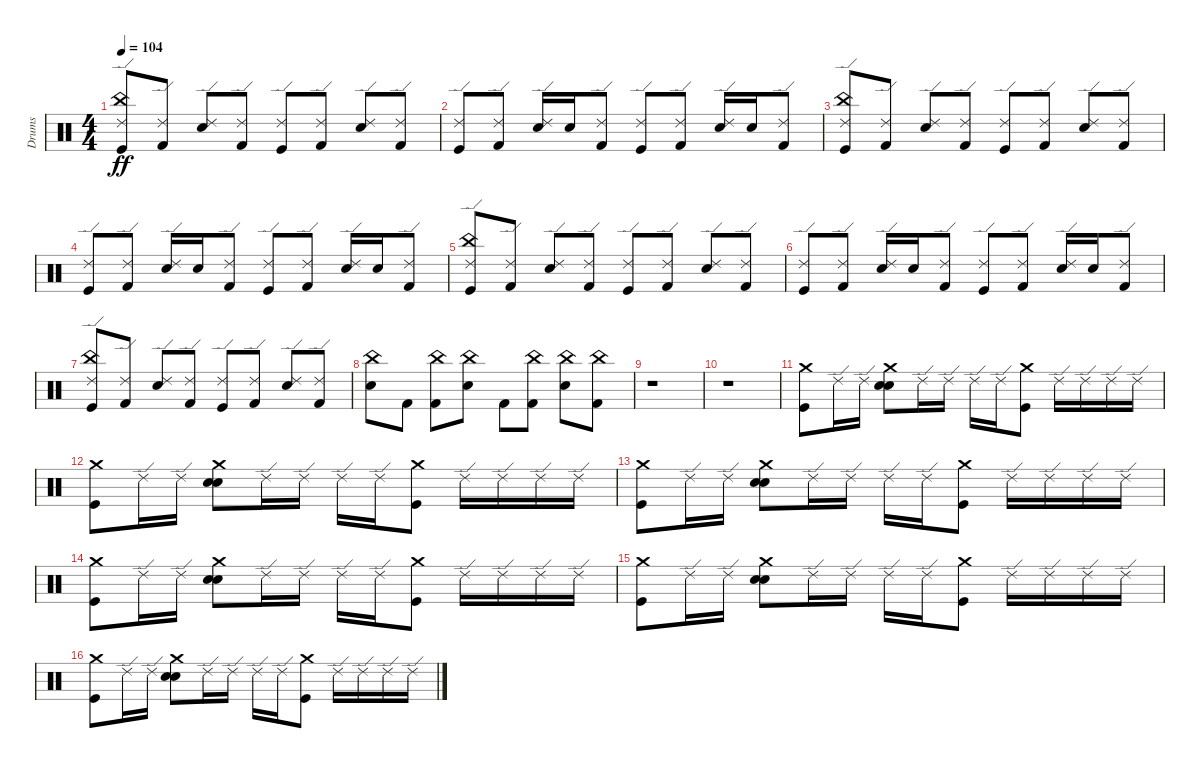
\track ("Drums" "Drums") {instrument percussion}
\staff {score}
\articulation defaults
\ts (4 4)
\tempo 104
\clef neutral
\ks c
("Kick (hit)" "China (hit)" "Ride (edge) 2").8{dy ff volume 16} ("Kick (hit) 2" "Ride (edge) 2").8 ("Snare (hit) 2" "Ride (edge) 2").8{volume 16} ("Kick (hit) 2" "Ride (edge) 2").8 ("Kick (hit)" "Ride (edge) 2").8{volume 16} ("Kick (hit) 2" "Ride (edge) 2").8 ("Snare (hit) 2" "Ride (edge) 2").8{volume 16} ("Kick (hit) 2" "Ride (edge) 2").8 |
("Kick (hit)" "Ride (edge) 2").8 ("Kick (hit) 2" "Ride (edge) 2").8 ("Snare (hit) 2" "Ride (edge) 2").16 "Snare (hit) 2".16 ("Kick (hit) 2" "Ride (edge) 2").8 ("Kick (hit)" "Ride (edge) 2").8 ("Kick (hit) 2" "Ride (edge) 2").8 ("Snare (hit) 2" "Ride (edge) 2").16 "Snare (hit) 2".16 ("Kick (hit) 2" "Ride (edge) 2").8 |
("Kick (hit)" "China (hit)" "Ride (edge) 2").8 ("Kick (hit) 2" "Ride (edge) 2").8 ("Snare (hit) 2" "Ride (edge) 2").8 ("Kick (hit) 2" "Ride (edge) 2").8 ("Kick (hit)" "Ride (edge) 2").8 ("Kick (hit) 2" "Ride (edge) 2").8 ("Snare (hit) 2" "Ride (edge) 2").8 ("Kick (hit) 2" "Ride (edge) 2").8 |
("Kick (hit)" "Ride (edge) 2").8 ("Kick (hit) 2" "Ride (edge) 2").8 ("Snare (hit) 2" "Ride (edge) 2").16 "Snare (hit) 2".16 ("Kick (hit) 2" "Ride (edge) 2").8 ("Kick (hit)" "Ride (edge) 2").8 ("Kick (hit) 2" "Ride (edge) 2").8 ("Snare (hit) 2" "Ride (edge) 2").16 "Snare (hit) 2".16 ("Kick (hit) 2" "Ride (edge) 2").8 |
("Kick (hit)" "China (hit)" "Ride (edge) 2").8 ("Kick (hit) 2" "Ride (edge) 2").8 ("Snare (hit) 2" "Ride (edge) 2").8 ("Kick (hit) 2" "Ride (edge) 2").8 ("Kick (hit)" "Ride (edge) 2").8 ("Kick (hit) 2" "Ride (edge) 2").8 ("Snare (hit) 2" "Ride (edge) 2").8 ("Kick (hit) 2" "Ride (edge) 2").8 |
("Kick (hit)" "Ride (edge) 2").8 ("Kick (hit) 2" "Ride (edge) 2").8 ("Snare (hit) 2" "Ride (edge) 2").16 "Snare (hit) 2".16 ("Kick (hit) 2" "Ride (edge) 2").8 ("Kick (hit)" "Ride (edge) 2").8 ("Kick (hit) 2" "Ride (edge) 2").8 ("Snare (hit) 2" "Ride (edge) 2").16 "Snare (hit) 2".16 ("Kick (hit) 2" "Ride (edge) 2").8 |
("Kick (hit)" "China (hit)" "Ride (edge) 2").8 ("Kick (hit) 2" "Ride (edge) 2").8 ("Snare (hit) 2" "Ride (edge) 2").8 ("Kick (hit) 2" "Ride (edge) 2").8 ("Kick (hit)" "Ride (edge) 2").8 ("Kick (hit) 2" "Ride (edge) 2").8 ("Snare (hit) 2" "Ride (edge) 2").8 ("Kick (hit) 2" "Ride (edge) 2").8 |
("Snare (hit) 2" "China (hit)").8 "Kick (hit) 2".8 ("Kick (hit) 2" "China (hit)").8 ("Snare (hit) 2" "China (hit)").8 "Kick (hit) 2".8 ("Kick (hit) 2" "China (hit)").8 ("Snare (hit) 2" "China (hit)").8 ("Kick (hit) 2" "China (hit)").8 |
r.1 |
r.1 |
("Kick (hit)" "Crash medium (hit)").8 "Ride (edge) 2".16 "Ride (edge) 2".16 ("Snare (hit) 2" "Electric Snare (hit)" "Crash medium (hit)").8 "Ride (edge) 2".16 "Ride (edge) 2".16 "Ride (edge) 2".16 "Ride (edge) 2".16 ("Kick (hit)" "Crash medium (hit)").8 "Ride (edge) 2".16 "Ride (edge) 2".16 "Ride (edge) 2".16 "Ride (edge) 2".16 |
("Kick (hit)" "Crash medium (hit)").8 "Ride (edge) 2".16 "Ride (edge) 2".16 ("Snare (hit) 2" "Electric Snare (hit)" "Crash medium (hit)").8 "Ride (edge) 2".16 "Ride (edge) 2".16 "Ride (edge) 2".16 "Ride (edge) 2".16 ("Kick (hit)" "Crash medium (hit)").8 "Ride (edge) 2".16 "Ride (edge) 2".16 "Ride (edge) 2".16 "Ride (edge) 2".16 |
("Kick (hit)" "Crash medium (hit)").8 "Ride (edge) 2".16 "Ride (edge) 2".16 ("Snare (hit) 2" "Electric Snare (hit)" "Crash medium (hit)").8 "Ride (edge) 2".16 "Ride (edge) 2".16 "Ride (edge) 2".16 "Ride (edge) 2".16 ("Kick (hit)" "Crash medium (hit)").8 "Ride (edge) 2".16 "Ride (edge) 2".16 "Ride (edge) 2".16 "Ride (edge) 2".16 |
("Kick (hit)" "Crash medium (hit)").8 "Ride (edge) 2".16 "Ride (edge) 2".16 ("Snare (hit) 2" "Electric Snare (hit)" "Crash medium (hit)").8 "Ride (edge) 2".16 "Ride (edge) 2".16 "Ride (edge) 2".16 "Ride (edge) 2".16 ("Kick (hit)" "Crash medium (hit)").8 "Ride (edge) 2".16 "Ride (edge) 2".16 "Ride (edge) 2".16 "Ride (edge) 2".16 |
("Kick (hit)" "Crash medium (hit)").8 "Ride (edge) 2".16 "Ride (edge) 2".16 ("Snare (hit) 2" "Electric Snare (hit)" "Crash medium (hit)").8 "Ride (edge) 2".16 "Ride (edge) 2".16 "Ride (edge) 2".16 "Ride (edge) 2".16 ("Kick (hit)" "Crash medium (hit)").8 "Ride (edge) 2".16 "Ride (edge) 2".16 "Ride (edge) 2".16 "Ride (edge) 2".16 |
("Kick (hit)" "Crash medium (hit)").8 "Ride (edge) 2".16 "Ride (edge) 2".16 ("Snare (hit) 2" "Electric Snare (hit)" "Crash medium (hit)").8 "Ride (edge) 2".16 "Ride (edge) 2".16 "Ride (edge) 2".16 "Ride (edge) 2".16 ("Kick (hit)" "Crash medium (hit)").8 "Ride (edge) 2".16 "Ride (edge) 2".16 "Ride (edge) 2".16 "Ride (edge) 2".16
